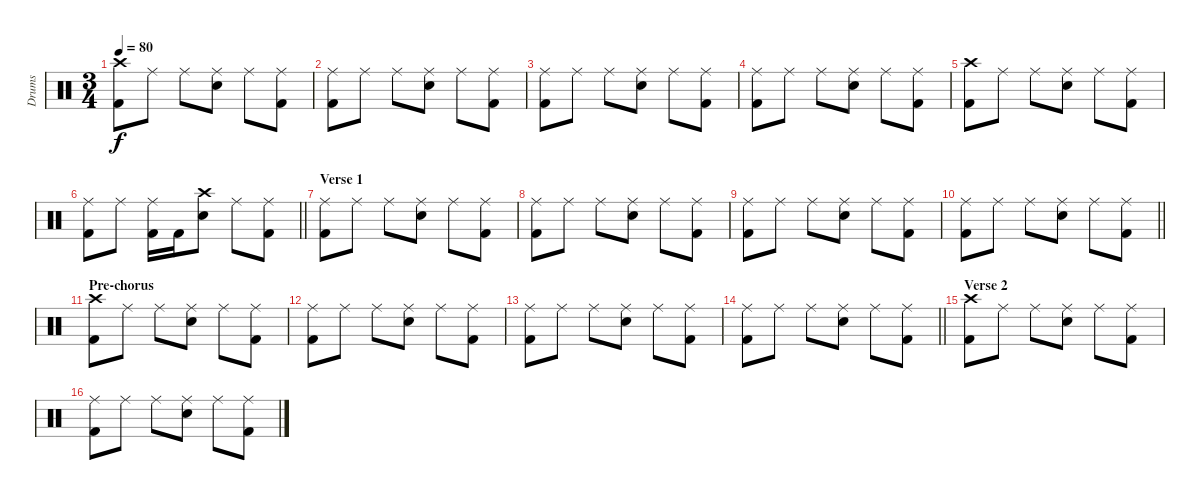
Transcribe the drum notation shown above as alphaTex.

\track ("Drums" "Drums") {instrument percussion}
\staff {score}
\articulation defaults
\ts (3 4)
\tempo 80
\clef neutral
\ks c
("Crash high (hit)" "Kick (hit) 2").8{dy f} "Ride (middle)".8 "Ride (middle)".8 ("Ride (middle)" "Electric Snare (hit)").8 "Ride (middle)".8 ("Ride (middle)" "Kick (hit) 2").8 |
("Ride (middle)" "Kick (hit) 2").8 "Ride (middle)".8 "Ride (middle)".8 ("Ride (middle)" "Electric Snare (hit)").8 "Ride (middle)".8 ("Ride (middle)" "Kick (hit) 2").8 |
("Ride (middle)" "Kick (hit) 2").8 "Ride (middle)".8 "Ride (middle)".8 ("Ride (middle)" "Electric Snare (hit)").8 "Ride (middle)".8 ("Ride (middle)" "Kick (hit) 2").8 |
("Ride (middle)" "Kick (hit) 2").8 "Ride (middle)".8 "Ride (middle)".8 ("Ride (middle)" "Electric Snare (hit)").8 "Ride (middle)".8 ("Ride (middle)" "Kick (hit) 2").8 |
("Crash high (hit)" "Kick (hit) 2").8 "Ride (middle)".8 "Ride (middle)".8 ("Ride (middle)" "Electric Snare (hit)").8 "Ride (middle)".8 ("Ride (middle)" "Kick (hit) 2").8 |
\barLineRight lightlight
("Ride (middle)" "Kick (hit) 2").8 "Ride (middle)".8 ("Ride (middle)" "Kick (hit) 2").16 "Kick (hit) 2".16 ("Crash high (hit)" "Electric Snare (hit)").8 "Ride (middle)".8 ("Ride (middle)" "Kick (hit) 2").8 |
\section ("" "Verse 1")
("Ride (middle)" "Kick (hit) 2").8 "Ride (middle)".8 "Ride (middle)".8 ("Ride (middle)" "Electric Snare (hit)").8 "Ride (middle)".8 ("Ride (middle)" "Kick (hit) 2").8 |
("Ride (middle)" "Kick (hit) 2").8 "Ride (middle)".8 "Ride (middle)".8 ("Ride (middle)" "Electric Snare (hit)").8 "Ride (middle)".8 ("Ride (middle)" "Kick (hit) 2").8 |
("Ride (middle)" "Kick (hit) 2").8 "Ride (middle)".8 "Ride (middle)".8 ("Ride (middle)" "Electric Snare (hit)").8 "Ride (middle)".8 ("Ride (middle)" "Kick (hit) 2").8 |
\barLineRight lightlight
("Ride (middle)" "Kick (hit) 2").8 "Ride (middle)".8 "Ride (middle)".8 ("Ride (middle)" "Electric Snare (hit)").8 "Ride (middle)".8 ("Ride (middle)" "Kick (hit) 2").8 |
\section ("" "Pre-chorus")
("Crash high (hit)" "Kick (hit) 2").8 "Ride (middle)".8 "Ride (middle)".8 ("Ride (middle)" "Electric Snare (hit)").8 "Ride (middle)".8 ("Ride (middle)" "Kick (hit) 2").8 |
("Ride (middle)" "Kick (hit) 2").8 "Ride (middle)".8 "Ride (middle)".8 ("Ride (middle)" "Electric Snare (hit)").8 "Ride (middle)".8 ("Ride (middle)" "Kick (hit) 2").8 |
("Ride (middle)" "Kick (hit) 2").8 "Ride (middle)".8 "Ride (middle)".8 ("Ride (middle)" "Electric Snare (hit)").8 "Ride (middle)".8 ("Ride (middle)" "Kick (hit) 2").8 |
\barLineRight lightlight
("Ride (middle)" "Kick (hit) 2").8 "Ride (middle)".8 "Ride (middle)".8 ("Ride (middle)" "Electric Snare (hit)").8 "Ride (middle)".8 ("Ride (middle)" "Kick (hit) 2").8 |
\section ("" "Verse 2")
("Crash high (hit)" "Kick (hit) 2").8 "Ride (middle)".8 "Ride (middle)".8 ("Ride (middle)" "Electric Snare (hit)").8 "Ride (middle)".8 ("Ride (middle)" "Kick (hit) 2").8 |
("Ride (middle)" "Kick (hit) 2").8 "Ride (middle)".8 "Ride (middle)".8 ("Ride (middle)" "Electric Snare (hit)").8 "Ride (middle)".8 ("Ride (middle)" "Kick (hit) 2").8
